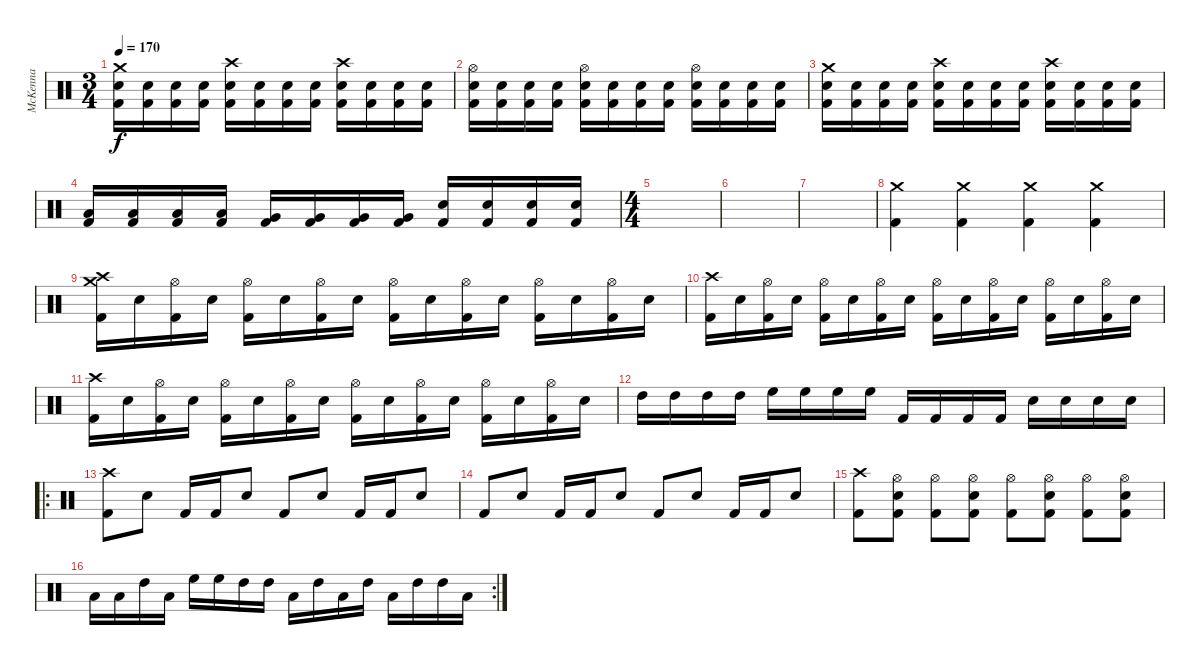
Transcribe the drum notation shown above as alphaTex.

\track ("McKenna" "McKenna") {instrument percussion}
\staff {score}
\articulation defaults
\ts (3 4)
\tempo 170
\clef neutral
\ks c
("Crash medium (hit)" "Electric Snare (hit)" "Kick (hit) 2").16{dy f} ("Electric Snare (hit)" "Kick (hit) 2").16 ("Electric Snare (hit)" "Kick (hit) 2").16 ("Electric Snare (hit)" "Kick (hit) 2").16 ("Crash high (hit)" "Electric Snare (hit)" "Kick (hit) 2").16 ("Electric Snare (hit)" "Kick (hit) 2").16 ("Electric Snare (hit)" "Kick (hit) 2").16 ("Electric Snare (hit)" "Kick (hit) 2").16 ("Crash high (hit)" "Electric Snare (hit)" "Kick (hit) 2").16 ("Electric Snare (hit)" "Kick (hit) 2").16 ("Electric Snare (hit)" "Kick (hit) 2").16 ("Electric Snare (hit)" "Kick (hit) 2").16 |
("Hi-Hat (open)" "Electric Snare (hit)" "Kick (hit) 2").16 ("Electric Snare (hit)" "Kick (hit) 2").16 ("Electric Snare (hit)" "Kick (hit) 2").16 ("Electric Snare (hit)" "Kick (hit) 2").16 ("Hi-Hat (open)" "Electric Snare (hit)" "Kick (hit) 2").16 ("Electric Snare (hit)" "Kick (hit) 2").16 ("Electric Snare (hit)" "Kick (hit) 2").16 ("Electric Snare (hit)" "Kick (hit) 2").16 ("Hi-Hat (open)" "Electric Snare (hit)" "Kick (hit) 2").16 ("Electric Snare (hit)" "Kick (hit) 2").16 ("Electric Snare (hit)" "Kick (hit) 2").16 ("Electric Snare (hit)" "Kick (hit) 2").16 |
("Crash medium (hit)" "Electric Snare (hit)" "Kick (hit) 2").16 ("Electric Snare (hit)" "Kick (hit) 2").16 ("Electric Snare (hit)" "Kick (hit) 2").16 ("Electric Snare (hit)" "Kick (hit) 2").16 ("Crash high (hit)" "Electric Snare (hit)" "Kick (hit) 2").16 ("Electric Snare (hit)" "Kick (hit) 2").16 ("Electric Snare (hit)" "Kick (hit) 2").16 ("Electric Snare (hit)" "Kick (hit) 2").16 ("Crash high (hit)" "Electric Snare (hit)" "Kick (hit) 2").16 ("Electric Snare (hit)" "Kick (hit) 2").16 ("Electric Snare (hit)" "Kick (hit) 2").16 ("Electric Snare (hit)" "Kick (hit) 2").16 |
("Low Floor Tom (hit)" "Kick (hit) 2").16 ("Low Floor Tom (hit)" "Kick (hit) 2").16 ("Low Floor Tom (hit)" "Kick (hit) 2").16 ("Low Floor Tom (hit)" "Kick (hit) 2").16 ("Very Low Tom (hit)" "Kick (hit) 2").16 ("Very Low Tom (hit)" "Kick (hit) 2").16 ("Very Low Tom (hit)" "Kick (hit) 2").16 ("Very Low Tom (hit)" "Kick (hit) 2").16 ("Snare (hit) 2" "Kick (hit) 2").16 ("Snare (hit) 2" "Kick (hit) 2").16 ("Snare (hit) 2" "Kick (hit) 2").16 ("Snare (hit) 2" "Kick (hit) 2").16 |
\ts (4 4)
|
|
|
("Crash medium (hit)" "Kick (hit) 2").4 ("Crash medium (hit)" "Kick (hit) 2").4 ("Crash medium (hit)" "Kick (hit) 2").4 ("Crash medium (hit)" "Kick (hit) 2").4 |
("Crash medium (hit)" "Crash high (hit)" "Kick (hit) 2").16 "Snare (hit) 2".16 ("Hi-Hat (open)" "Kick (hit) 2").16 "Snare (hit) 2".16 ("Hi-Hat (open)" "Kick (hit) 2").16 "Snare (hit) 2".16 ("Hi-Hat (open)" "Kick (hit) 2").16 "Snare (hit) 2".16 ("Hi-Hat (open)" "Kick (hit) 2").16 "Snare (hit) 2".16 ("Hi-Hat (open)" "Kick (hit) 2").16 "Snare (hit) 2".16 ("Hi-Hat (open)" "Kick (hit) 2").16 "Snare (hit) 2".16 ("Hi-Hat (open)" "Kick (hit) 2").16 "Snare (hit) 2".16 |
("Crash high (hit)" "Kick (hit) 2").16 "Snare (hit) 2".16 ("Hi-Hat (open)" "Kick (hit) 2").16 "Snare (hit) 2".16 ("Hi-Hat (open)" "Kick (hit) 2").16 "Snare (hit) 2".16 ("Hi-Hat (open)" "Kick (hit) 2").16 "Snare (hit) 2".16 ("Hi-Hat (open)" "Kick (hit) 2").16 "Snare (hit) 2".16 ("Hi-Hat (open)" "Kick (hit) 2").16 "Snare (hit) 2".16 ("Hi-Hat (open)" "Kick (hit) 2").16 "Snare (hit) 2".16 ("Hi-Hat (open)" "Kick (hit) 2").16 "Snare (hit) 2".16 |
("Crash high (hit)" "Kick (hit) 2").16 "Snare (hit) 2".16 ("Hi-Hat (open)" "Kick (hit) 2").16 "Snare (hit) 2".16 ("Hi-Hat (open)" "Kick (hit) 2").16 "Snare (hit) 2".16 ("Hi-Hat (open)" "Kick (hit) 2").16 "Snare (hit) 2".16 ("Hi-Hat (open)" "Kick (hit) 2").16 "Snare (hit) 2".16 ("Hi-Hat (open)" "Kick (hit) 2").16 "Snare (hit) 2".16 ("Hi-Hat (open)" "Kick (hit) 2").16 "Snare (hit) 2".16 ("Hi-Hat (open)" "Kick (hit) 2").16 "Snare (hit) 2".16 |
"High Tom (hit)".16 "High Tom (hit)".16 "High Tom (hit)".16 "High Tom (hit)".16 "High Floor Tom (hit)".16 "High Floor Tom (hit)".16 "High Floor Tom (hit)".16 "High Floor Tom (hit)".16 "Kick (hit) 2".16 "Kick (hit) 2".16 "Kick (hit) 2".16 "Kick (hit) 2".16 "Snare (hit) 2".16 "Snare (hit) 2".16 "Snare (hit) 2".16 "Snare (hit) 2".16 |
\ro
("Crash high (hit)" "Kick (hit) 2").8 "Snare (hit) 2".8 "Kick (hit) 2".16 "Kick (hit) 2".16 "Snare (hit) 2".8 "Kick (hit) 2".8 "Snare (hit) 2".8 "Kick (hit) 2".16 "Kick (hit) 2".16 "Snare (hit) 2".8 |
"Kick (hit) 2".8 "Snare (hit) 2".8 "Kick (hit) 2".16 "Kick (hit) 2".16 "Snare (hit) 2".8 "Kick (hit) 2".8 "Snare (hit) 2".8 "Kick (hit) 2".16 "Kick (hit) 2".16 "Snare (hit) 2".8 |
("Crash high (hit)" "Kick (hit) 2").8 ("Hi-Hat (open)" "Snare (hit) 2" "Kick (hit) 2").8 ("Hi-Hat (open)" "Kick (hit) 2").8 ("Hi-Hat (open)" "Snare (hit) 2" "Kick (hit) 2").8 ("Hi-Hat (open)" "Kick (hit) 2").8 ("Hi-Hat (open)" "Snare (hit) 2" "Kick (hit) 2").8 ("Hi-Hat (open)" "Kick (hit) 2").8 ("Hi-Hat (open)" "Snare (hit) 2" "Kick (hit) 2").8 |
\rc 2 "Low Tom (hit)".16 "Low Tom (hit)".16 "High Tom (hit)".16 "Low Tom (hit)".16 "High Floor Tom (hit)".16 "High Floor Tom (hit)".16 "High Tom (hit)".16 "High Tom (hit)".16 "Low Tom (hit)".16 "High Tom (hit)".16 "Low Tom (hit)".16 "High Tom (hit)".16 "Low Tom (hit)".16 "High Tom (hit)".16 "High Tom (hit)".16 "Low Tom (hit)".16
